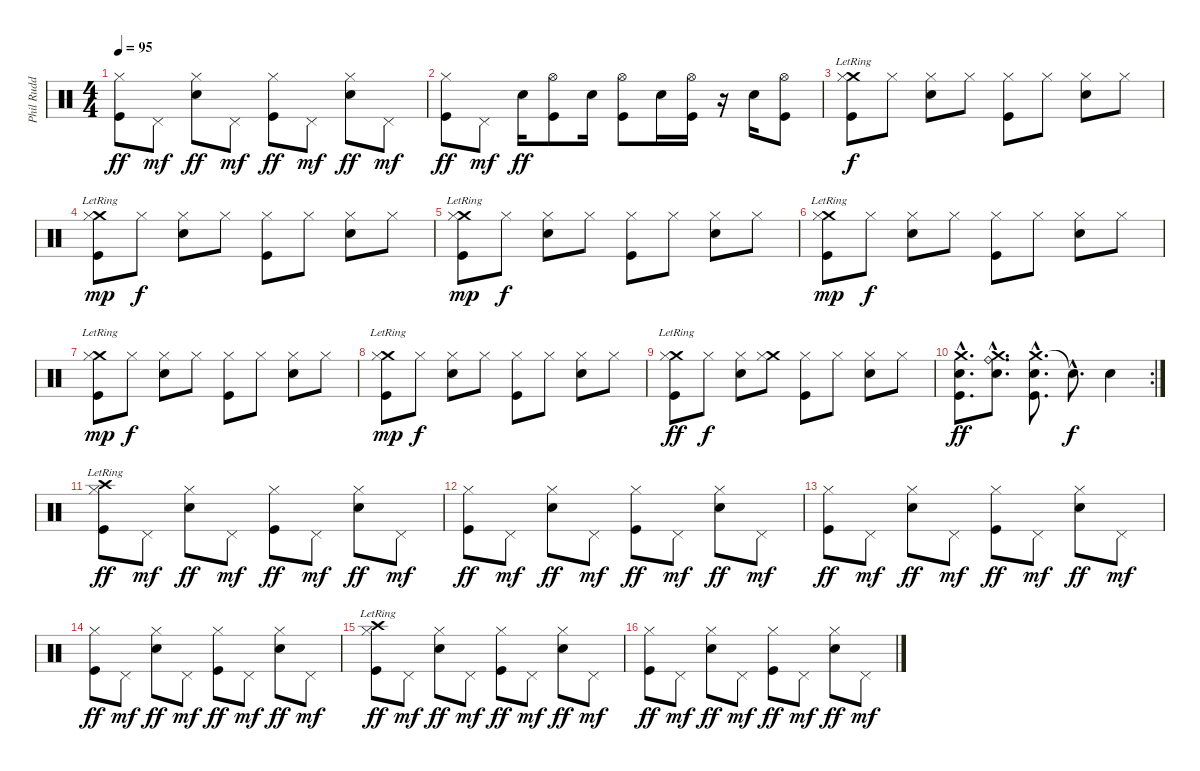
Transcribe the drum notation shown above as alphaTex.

\track ("Phil Rudd" "Phil Rudd") {instrument percussion}
\staff {score}
\articulation defaults
\ts (4 4)
\tempo 95
\clef neutral
\ks c
("Hi-Hat (closed)" "Kick (hit)").8{dy ff} "Pedal Hi-Hat (hit)".8{dy mf} ("Hi-Hat (closed)" "Snare (hit) 2").8{dy ff} "Pedal Hi-Hat (hit)".8{dy mf} ("Hi-Hat (closed)" "Kick (hit)").8{dy ff} "Pedal Hi-Hat (hit)".8{dy mf} ("Hi-Hat (closed)" "Snare (hit) 2").8{dy ff} "Pedal Hi-Hat (hit)".8{dy mf} |
("Hi-Hat (closed)" "Kick (hit)").8{dy ff} "Pedal Hi-Hat (hit)".8{dy mf} "Snare (hit) 2".16{dy ff} ("Hi-Hat (open)" "Kick (hit)").8 "Snare (hit) 2".16 ("Hi-Hat (open)" "Kick (hit)").8 "Snare (hit) 2".16 ("Hi-Hat (open)" "Kick (hit)").16 r.16 "Snare (hit) 2".16 ("Hi-Hat (open)" "Kick (hit)").8 |
("Crash medium (hit)"{lr} "Hi-Hat (closed)" "Kick (hit)").8{dy f} "Hi-Hat (closed)".8 ("Hi-Hat (closed)" "Snare (hit) 2").8 "Hi-Hat (closed)".8 ("Hi-Hat (closed)" "Kick (hit)").8 "Hi-Hat (closed)".8 ("Hi-Hat (closed)" "Snare (hit) 2").8 "Hi-Hat (closed)".8 |
("Crash medium (hit)"{lr} "Hi-Hat (closed)" "Kick (hit)").8{dy mp} "Hi-Hat (closed)".8{dy f} ("Hi-Hat (closed)" "Snare (hit) 2").8 "Hi-Hat (closed)".8 ("Hi-Hat (closed)" "Kick (hit)").8 "Hi-Hat (closed)".8 ("Hi-Hat (closed)" "Snare (hit) 2").8 "Hi-Hat (closed)".8 |
("Crash medium (hit)"{lr} "Hi-Hat (closed)" "Kick (hit)").8{dy mp} "Hi-Hat (closed)".8{dy f} ("Hi-Hat (closed)" "Snare (hit) 2").8 "Hi-Hat (closed)".8 ("Hi-Hat (closed)" "Kick (hit)").8 "Hi-Hat (closed)".8 ("Hi-Hat (closed)" "Snare (hit) 2").8 "Hi-Hat (closed)".8 |
("Crash medium (hit)"{lr} "Hi-Hat (closed)" "Kick (hit)").8{dy mp} "Hi-Hat (closed)".8{dy f} ("Hi-Hat (closed)" "Snare (hit) 2").8 "Hi-Hat (closed)".8 ("Hi-Hat (closed)" "Kick (hit)").8 "Hi-Hat (closed)".8 ("Hi-Hat (closed)" "Snare (hit) 2").8 "Hi-Hat (closed)".8 |
("Crash medium (hit)"{lr} "Hi-Hat (closed)" "Kick (hit)").8{dy mp} "Hi-Hat (closed)".8{dy f} ("Hi-Hat (closed)" "Snare (hit) 2").8 "Hi-Hat (closed)".8 ("Hi-Hat (closed)" "Kick (hit)").8 "Hi-Hat (closed)".8 ("Hi-Hat (closed)" "Snare (hit) 2").8 "Hi-Hat (closed)".8 |
("Crash medium (hit)"{lr} "Hi-Hat (closed)" "Kick (hit)").8{dy mp} "Hi-Hat (closed)".8{dy f} ("Hi-Hat (closed)" "Snare (hit) 2").8 "Hi-Hat (closed)".8 ("Hi-Hat (closed)" "Kick (hit)").8 "Hi-Hat (closed)".8 ("Hi-Hat (closed)" "Snare (hit) 2").8 "Hi-Hat (closed)".8 |
("Crash medium (hit)"{lr} "Hi-Hat (closed)" "Kick (hit)").8{dy ff} "Hi-Hat (closed)".8{dy f} ("Hi-Hat (closed)" "Snare (hit) 2").8 ("Crash medium (hit)" "Hi-Hat (closed)").8 ("Hi-Hat (closed)" "Kick (hit)").8 "Hi-Hat (closed)".8 ("Hi-Hat (closed)" "Snare (hit) 2").8 "Hi-Hat (closed)".8 |
\rc 2
("Crash medium (hit)"{hac} "Kick (hit)"{hac} "Snare (hit) 2"{hac}).8{d dy ff} ("Crash medium (hit)"{hac} "Ride (bell)"{hac} "Snare (hit) 2"{hac}).8{d} ("Crash medium (hit)"{hac} "Kick (hit)"{hac} "Snare (hit) 2"{hac}).8{d} "Snare (hit)"{hac t}.8{d dy f} "Snare (hit) 2".4 |
("Crash high (hit)"{lr} "Hi-Hat (closed)" "Kick (hit)").8{dy ff} "Pedal Hi-Hat (hit)".8{dy mf} ("Hi-Hat (closed)" "Snare (hit) 2").8{dy ff} "Pedal Hi-Hat (hit)".8{dy mf} ("Hi-Hat (closed)" "Kick (hit)").8{dy ff} "Pedal Hi-Hat (hit)".8{dy mf} ("Hi-Hat (closed)" "Snare (hit) 2").8{dy ff} "Pedal Hi-Hat (hit)".8{dy mf} |
("Hi-Hat (closed)" "Kick (hit)").8{dy ff} "Pedal Hi-Hat (hit)".8{dy mf} ("Hi-Hat (closed)" "Snare (hit) 2").8{dy ff} "Pedal Hi-Hat (hit)".8{dy mf} ("Hi-Hat (closed)" "Kick (hit)").8{dy ff} "Pedal Hi-Hat (hit)".8{dy mf} ("Hi-Hat (closed)" "Snare (hit) 2").8{dy ff} "Pedal Hi-Hat (hit)".8{dy mf} |
("Hi-Hat (closed)" "Kick (hit)").8{dy ff} "Pedal Hi-Hat (hit)".8{dy mf} ("Hi-Hat (closed)" "Snare (hit) 2").8{dy ff} "Pedal Hi-Hat (hit)".8{dy mf} ("Hi-Hat (closed)" "Kick (hit)").8{dy ff} "Pedal Hi-Hat (hit)".8{dy mf} ("Hi-Hat (closed)" "Snare (hit) 2").8{dy ff} "Pedal Hi-Hat (hit)".8{dy mf} |
("Hi-Hat (closed)" "Kick (hit)").8{dy ff} "Pedal Hi-Hat (hit)".8{dy mf} ("Hi-Hat (closed)" "Snare (hit) 2").8{dy ff} "Pedal Hi-Hat (hit)".8{dy mf} ("Hi-Hat (closed)" "Kick (hit)").8{dy ff} "Pedal Hi-Hat (hit)".8{dy mf} ("Hi-Hat (closed)" "Snare (hit) 2").8{dy ff} "Pedal Hi-Hat (hit)".8{dy mf} |
("Crash high (hit)"{lr} "Hi-Hat (closed)" "Kick (hit)").8{dy ff} "Pedal Hi-Hat (hit)".8{dy mf} ("Hi-Hat (closed)" "Snare (hit) 2").8{dy ff} "Pedal Hi-Hat (hit)".8{dy mf} ("Hi-Hat (closed)" "Kick (hit)").8{dy ff} "Pedal Hi-Hat (hit)".8{dy mf} ("Hi-Hat (closed)" "Snare (hit) 2").8{dy ff} "Pedal Hi-Hat (hit)".8{dy mf} |
("Hi-Hat (closed)" "Kick (hit)").8{dy ff} "Pedal Hi-Hat (hit)".8{dy mf} ("Hi-Hat (closed)" "Snare (hit) 2").8{dy ff} "Pedal Hi-Hat (hit)".8{dy mf} ("Hi-Hat (closed)" "Kick (hit)").8{dy ff} "Pedal Hi-Hat (hit)".8{dy mf} ("Hi-Hat (closed)" "Snare (hit) 2").8{dy ff} "Pedal Hi-Hat (hit)".8{dy mf}
